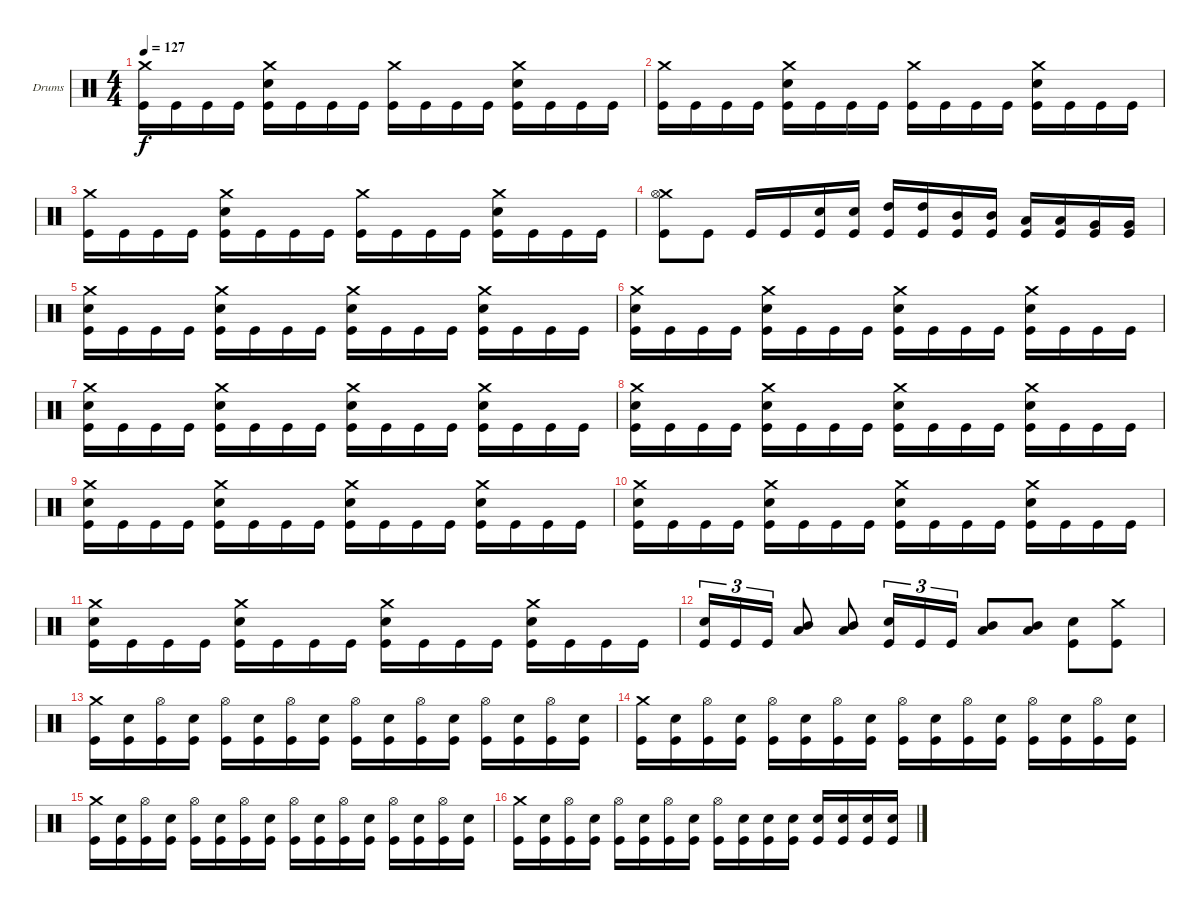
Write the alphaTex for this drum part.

\bracketExtendMode groupsimilarinstruments
\firstSystemTrackNameOrientation horizontal
\otherSystemsTrackNameOrientation horizontal
\track ("Drumkit" "Drums") {instrument percussion}
\staff {score}
\articulation defaults
\ts (4 4)
\tempo 127
\clef neutral
\ks c
("Crash medium (hit)" "Kick (hit)").16{dy f} "Kick (hit)".16 "Kick (hit)".16 "Kick (hit)".16 ("Crash medium (hit)" "Snare (hit) 2" "Kick (hit)").16 "Kick (hit)".16 "Kick (hit)".16 "Kick (hit)".16 ("Crash medium (hit)" "Kick (hit)").16 "Kick (hit)".16 "Kick (hit)".16 "Kick (hit)".16 ("Crash medium (hit)" "Snare (hit) 2" "Kick (hit)").16 "Kick (hit)".16 "Kick (hit)".16 "Kick (hit)".16 |
("Crash medium (hit)" "Kick (hit)").16 "Kick (hit)".16 "Kick (hit)".16 "Kick (hit)".16 ("Crash medium (hit)" "Snare (hit) 2" "Kick (hit)").16 "Kick (hit)".16 "Kick (hit)".16 "Kick (hit)".16 ("Crash medium (hit)" "Kick (hit)").16 "Kick (hit)".16 "Kick (hit)".16 "Kick (hit)".16 ("Crash medium (hit)" "Snare (hit) 2" "Kick (hit)").16 "Kick (hit)".16 "Kick (hit)".16 "Kick (hit)".16 |
("Crash medium (hit)" "Kick (hit)").16 "Kick (hit)".16 "Kick (hit)".16 "Kick (hit)".16 ("Crash medium (hit)" "Snare (hit) 2" "Kick (hit)").16 "Kick (hit)".16 "Kick (hit)".16 "Kick (hit)".16 ("Crash medium (hit)" "Kick (hit)").16 "Kick (hit)".16 "Kick (hit)".16 "Kick (hit)".16 ("Crash medium (hit)" "Snare (hit) 2" "Kick (hit)").16 "Kick (hit)".16 "Kick (hit)".16 "Kick (hit)".16 |
("Crash medium (hit)" "Hi-Hat (open)" "Kick (hit)").8 "Kick (hit)".8 "Kick (hit)".16 "Kick (hit)".16 ("Snare (hit) 2" "Kick (hit)").16 ("Snare (hit) 2" "Kick (hit)").16 ("High Tom (hit)" "Kick (hit)").16 ("High Tom (hit)" "Kick (hit)").16 ("Mid Tom (hit)" "Kick (hit)").16 ("Mid Tom (hit)" "Kick (hit)").16 ("Low Tom (hit)" "Kick (hit)").16 ("Low Tom (hit)" "Kick (hit)").16 ("Very Low Tom (hit)" "Kick (hit)").16 ("Very Low Tom (hit)" "Kick (hit)").16 |
("Crash medium (hit)" "Snare (hit) 2" "Kick (hit)").16 "Kick (hit)".16 "Kick (hit)".16 "Kick (hit)".16 ("Crash medium (hit)" "Snare (hit) 2" "Kick (hit)").16 "Kick (hit)".16 "Kick (hit)".16 "Kick (hit)".16 ("Crash medium (hit)" "Snare (hit) 2" "Kick (hit)").16 "Kick (hit)".16 "Kick (hit)".16 "Kick (hit)".16 ("Crash medium (hit)" "Snare (hit) 2" "Kick (hit)").16 "Kick (hit)".16 "Kick (hit)".16 "Kick (hit)".16 |
("Crash medium (hit)" "Snare (hit) 2" "Kick (hit)").16 "Kick (hit)".16 "Kick (hit)".16 "Kick (hit)".16 ("Crash medium (hit)" "Snare (hit) 2" "Kick (hit)").16 "Kick (hit)".16 "Kick (hit)".16 "Kick (hit)".16 ("Crash medium (hit)" "Snare (hit) 2" "Kick (hit)").16 "Kick (hit)".16 "Kick (hit)".16 "Kick (hit)".16 ("Crash medium (hit)" "Snare (hit) 2" "Kick (hit)").16 "Kick (hit)".16 "Kick (hit)".16 "Kick (hit)".16 |
("Crash medium (hit)" "Snare (hit) 2" "Kick (hit)").16 "Kick (hit)".16 "Kick (hit)".16 "Kick (hit)".16 ("Crash medium (hit)" "Snare (hit) 2" "Kick (hit)").16 "Kick (hit)".16 "Kick (hit)".16 "Kick (hit)".16 ("Crash medium (hit)" "Snare (hit) 2" "Kick (hit)").16 "Kick (hit)".16 "Kick (hit)".16 "Kick (hit)".16 ("Crash medium (hit)" "Snare (hit) 2" "Kick (hit)").16 "Kick (hit)".16 "Kick (hit)".16 "Kick (hit)".16 |
("Crash medium (hit)" "Snare (hit) 2" "Kick (hit)").16 "Kick (hit)".16 "Kick (hit)".16 "Kick (hit)".16 ("Crash medium (hit)" "Snare (hit) 2" "Kick (hit)").16 "Kick (hit)".16 "Kick (hit)".16 "Kick (hit)".16 ("Crash medium (hit)" "Snare (hit) 2" "Kick (hit)").16 "Kick (hit)".16 "Kick (hit)".16 "Kick (hit)".16 ("Crash medium (hit)" "Snare (hit) 2" "Kick (hit)").16 "Kick (hit)".16 "Kick (hit)".16 "Kick (hit)".16 |
("Crash medium (hit)" "Snare (hit) 2" "Kick (hit)").16 "Kick (hit)".16 "Kick (hit)".16 "Kick (hit)".16 ("Crash medium (hit)" "Snare (hit) 2" "Kick (hit)").16 "Kick (hit)".16 "Kick (hit)".16 "Kick (hit)".16 ("Crash medium (hit)" "Snare (hit) 2" "Kick (hit)").16 "Kick (hit)".16 "Kick (hit)".16 "Kick (hit)".16 ("Crash medium (hit)" "Snare (hit) 2" "Kick (hit)").16 "Kick (hit)".16 "Kick (hit)".16 "Kick (hit)".16 |
("Crash medium (hit)" "Snare (hit) 2" "Kick (hit)").16 "Kick (hit)".16 "Kick (hit)".16 "Kick (hit)".16 ("Crash medium (hit)" "Snare (hit) 2" "Kick (hit)").16 "Kick (hit)".16 "Kick (hit)".16 "Kick (hit)".16 ("Crash medium (hit)" "Snare (hit) 2" "Kick (hit)").16 "Kick (hit)".16 "Kick (hit)".16 "Kick (hit)".16 ("Crash medium (hit)" "Snare (hit) 2" "Kick (hit)").16 "Kick (hit)".16 "Kick (hit)".16 "Kick (hit)".16 |
("Crash medium (hit)" "Snare (hit) 2" "Kick (hit)").16 "Kick (hit)".16 "Kick (hit)".16 "Kick (hit)".16 ("Crash medium (hit)" "Snare (hit) 2" "Kick (hit)").16 "Kick (hit)".16 "Kick (hit)".16 "Kick (hit)".16 ("Crash medium (hit)" "Snare (hit) 2" "Kick (hit)").16 "Kick (hit)".16 "Kick (hit)".16 "Kick (hit)".16 ("Crash medium (hit)" "Snare (hit) 2" "Kick (hit)").16 "Kick (hit)".16 "Kick (hit)".16 "Kick (hit)".16 |
("Snare (hit) 2" "Kick (hit)").16{tu (3 2)} "Kick (hit)".16{tu (3 2)} "Kick (hit)".16{tu (3 2)} ("Low Tom (hit)" "Mid Tom (hit)").8 ("Low Tom (hit)" "Mid Tom (hit)").8 ("Snare (hit) 2" "Kick (hit)").16{tu (3 2)} "Kick (hit)".16{tu (3 2)} "Kick (hit)".16{tu (3 2)} ("Low Tom (hit)" "Mid Tom (hit)").8 ("Low Tom (hit)" "Mid Tom (hit)").8 ("Snare (hit) 2" "Kick (hit)").8 ("Crash medium (hit)" "Kick (hit)").8 |
("Crash medium (hit)" "Kick (hit)").16 ("Snare (hit) 2" "Kick (hit)").16 ("Hi-Hat (open)" "Kick (hit)").16 ("Snare (hit) 2" "Kick (hit)").16 ("Hi-Hat (open)" "Kick (hit)").16 ("Snare (hit) 2" "Kick (hit)").16 ("Hi-Hat (open)" "Kick (hit)").16 ("Snare (hit) 2" "Kick (hit)").16 ("Hi-Hat (open)" "Kick (hit)").16 ("Snare (hit) 2" "Kick (hit)").16 ("Hi-Hat (open)" "Kick (hit)").16 ("Snare (hit) 2" "Kick (hit)").16 ("Hi-Hat (open)" "Kick (hit)").16 ("Snare (hit) 2" "Kick (hit)").16 ("Hi-Hat (open)" "Kick (hit)").16 ("Snare (hit) 2" "Kick (hit)").16 |
("Crash medium (hit)" "Kick (hit)").16 ("Snare (hit) 2" "Kick (hit)").16 ("Hi-Hat (open)" "Kick (hit)").16 ("Snare (hit) 2" "Kick (hit)").16 ("Hi-Hat (open)" "Kick (hit)").16 ("Snare (hit) 2" "Kick (hit)").16 ("Hi-Hat (open)" "Kick (hit)").16 ("Snare (hit) 2" "Kick (hit)").16 ("Hi-Hat (open)" "Kick (hit)").16 ("Snare (hit) 2" "Kick (hit)").16 ("Hi-Hat (open)" "Kick (hit)").16 ("Snare (hit) 2" "Kick (hit)").16 ("Hi-Hat (open)" "Kick (hit)").16 ("Snare (hit) 2" "Kick (hit)").16 ("Hi-Hat (open)" "Kick (hit)").16 ("Snare (hit) 2" "Kick (hit)").16 |
("Crash medium (hit)" "Kick (hit)").16 ("Snare (hit) 2" "Kick (hit)").16 ("Hi-Hat (open)" "Kick (hit)").16 ("Snare (hit) 2" "Kick (hit)").16 ("Hi-Hat (open)" "Kick (hit)").16 ("Snare (hit) 2" "Kick (hit)").16 ("Hi-Hat (open)" "Kick (hit)").16 ("Snare (hit) 2" "Kick (hit)").16 ("Hi-Hat (open)" "Kick (hit)").16 ("Snare (hit) 2" "Kick (hit)").16 ("Hi-Hat (open)" "Kick (hit)").16 ("Snare (hit) 2" "Kick (hit)").16 ("Hi-Hat (open)" "Kick (hit)").16 ("Snare (hit) 2" "Kick (hit)").16 ("Hi-Hat (open)" "Kick (hit)").16 ("Snare (hit) 2" "Kick (hit)").16 |
("Crash medium (hit)" "Kick (hit)").16 ("Snare (hit) 2" "Kick (hit)").16 ("Hi-Hat (open)" "Kick (hit)").16 ("Snare (hit) 2" "Kick (hit)").16 ("Hi-Hat (open)" "Kick (hit)").16 ("Snare (hit) 2" "Kick (hit)").16 ("Hi-Hat (open)" "Kick (hit)").16 ("Snare (hit) 2" "Kick (hit)").16 ("Hi-Hat (open)" "Kick (hit)").16 ("Snare (hit) 2" "Kick (hit)").16 ("Snare (hit) 2" "Kick (hit)").16 ("Snare (hit) 2" "Kick (hit)").16 ("Snare (hit) 2" "Kick (hit)").16 ("Snare (hit) 2" "Kick (hit)").16 ("Snare (hit) 2" "Kick (hit)").16 ("Snare (hit) 2" "Kick (hit)").16
